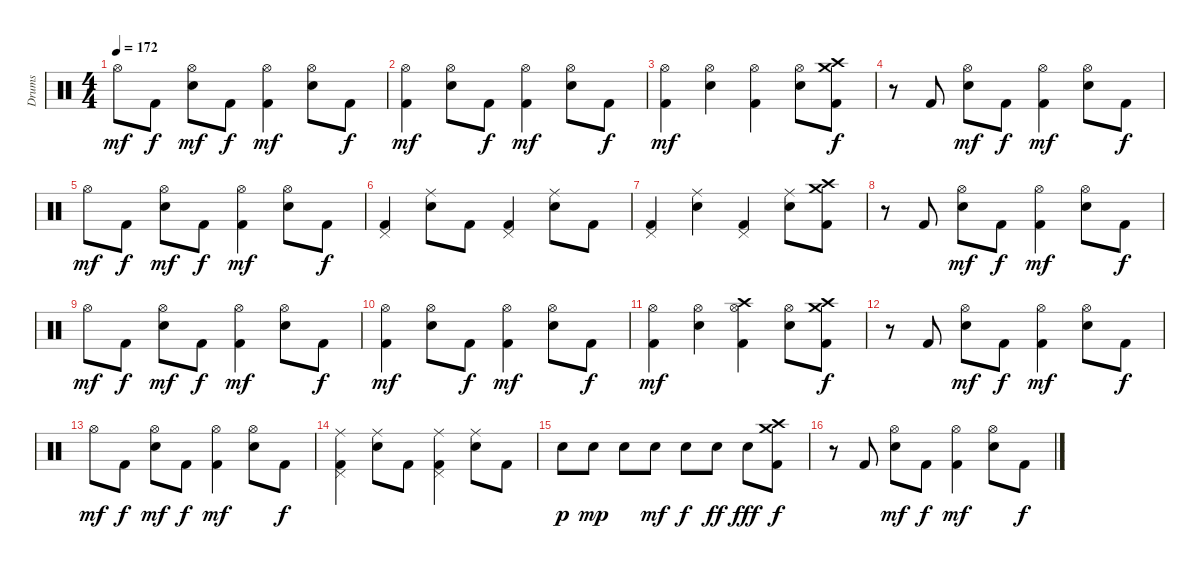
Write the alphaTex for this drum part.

\track ("Drums" "Drums") {instrument percussion}
\staff {score}
\articulation defaults
\ts (4 4)
\tempo 172
\clef neutral
\ks c "Hi-Hat (open)".8{dy mf} "Kick (hit) 2".8{dy f}
("Hi-Hat (open)" "Electric Snare (hit)").8{dy mf} "Kick (hit) 2".8{dy f} ("Hi-Hat (open)" "Kick (hit) 2").4{dy mf} ("Hi-Hat (open)" "Electric Snare (hit)").8 "Kick (hit) 2".8{dy f} |
("Hi-Hat (open)" "Kick (hit) 2").4{dy mf} ("Hi-Hat (open)" "Electric Snare (hit)").8 "Kick (hit) 2".8{dy f} ("Hi-Hat (open)" "Kick (hit) 2").4{dy mf} ("Hi-Hat (open)" "Electric Snare (hit)").8 "Kick (hit) 2".8{dy f} |
("Hi-Hat (open)" "Kick (hit) 2").4{dy mf} ("Hi-Hat (open)" "Electric Snare (hit)").4 ("Hi-Hat (open)" "Kick (hit) 2").4 ("Hi-Hat (open)" "Electric Snare (hit)").8 ("Crash medium (hit)" "Crash high (hit)" "Kick (hit) 2").8{dy f} |
r.8 "Kick (hit) 2".8 ("Hi-Hat (open)" "Electric Snare (hit)").8{dy mf} "Kick (hit) 2".8{dy f} ("Hi-Hat (open)" "Kick (hit) 2").4{dy mf} ("Hi-Hat (open)" "Electric Snare (hit)").8 "Kick (hit) 2".8{dy f} |
"Hi-Hat (open)".8{dy mf} "Kick (hit) 2".8{dy f} ("Hi-Hat (open)" "Electric Snare (hit)").8{dy mf} "Kick (hit) 2".8{dy f} ("Hi-Hat (open)" "Kick (hit) 2").4{dy mf} ("Hi-Hat (open)" "Electric Snare (hit)").8 "Kick (hit) 2".8{dy f} |
("Pedal Hi-Hat (hit)" "Kick (hit) 2").4 ("Ride (middle)" "Electric Snare (hit)").8 "Kick (hit) 2".8 ("Pedal Hi-Hat (hit)" "Kick (hit) 2").4 ("Ride (middle)" "Electric Snare (hit)").8 "Kick (hit) 2".8 |
("Pedal Hi-Hat (hit)" "Kick (hit) 2").4 ("Ride (middle)" "Electric Snare (hit)").4 ("Pedal Hi-Hat (hit)" "Kick (hit) 2").4 ("Ride (middle)" "Electric Snare (hit)").8 ("Crash medium (hit)" "Crash high (hit)" "Kick (hit) 2").8 |
\section ("" "")
r.8 "Kick (hit) 2".8 ("Hi-Hat (open)" "Electric Snare (hit)").8{dy mf} "Kick (hit) 2".8{dy f} ("Hi-Hat (open)" "Kick (hit) 2").4{dy mf} ("Hi-Hat (open)" "Electric Snare (hit)").8 "Kick (hit) 2".8{dy f} |
"Hi-Hat (open)".8{dy mf} "Kick (hit) 2".8{dy f} ("Hi-Hat (open)" "Electric Snare (hit)").8{dy mf} "Kick (hit) 2".8{dy f} ("Hi-Hat (open)" "Kick (hit) 2").4{dy mf} ("Hi-Hat (open)" "Electric Snare (hit)").8 "Kick (hit) 2".8{dy f} |
("Hi-Hat (open)" "Kick (hit) 2").4{dy mf} ("Hi-Hat (open)" "Electric Snare (hit)").8 "Kick (hit) 2".8{dy f} ("Hi-Hat (open)" "Kick (hit) 2").4{dy mf} ("Hi-Hat (open)" "Electric Snare (hit)").8 "Kick (hit) 2".8{dy f} |
("Hi-Hat (open)" "Kick (hit) 2").4{dy mf} ("Hi-Hat (open)" "Electric Snare (hit)").4 ("Hi-Hat (open)" "Crash high (hit)" "Kick (hit) 2").4 ("Hi-Hat (open)" "Electric Snare (hit)").8 ("Crash medium (hit)" "Crash high (hit)" "Kick (hit) 2").8{dy f} |
r.8 "Kick (hit) 2".8 ("Hi-Hat (open)" "Electric Snare (hit)").8{dy mf} "Kick (hit) 2".8{dy f} ("Hi-Hat (open)" "Kick (hit) 2").4{dy mf} ("Hi-Hat (open)" "Electric Snare (hit)").8 "Kick (hit) 2".8{dy f} |
"Hi-Hat (open)".8{dy mf} "Kick (hit) 2".8{dy f} ("Hi-Hat (open)" "Electric Snare (hit)").8{dy mf} "Kick (hit) 2".8{dy f} ("Hi-Hat (open)" "Kick (hit) 2").4{dy mf} ("Hi-Hat (open)" "Electric Snare (hit)").8 "Kick (hit) 2".8{dy f} |
("Pedal Hi-Hat (hit)" "Ride (middle)" "Kick (hit) 2").4 ("Ride (middle)" "Electric Snare (hit)").8 "Kick (hit) 2".8 ("Pedal Hi-Hat (hit)" "Ride (middle)" "Kick (hit) 2").4 ("Ride (middle)" "Electric Snare (hit)").8 "Kick (hit) 2".8 |
"Electric Snare (hit)".8{dy p} "Electric Snare (hit)".8{dy mp} "Electric Snare (hit)".8 "Electric Snare (hit)".8{dy mf} "Electric Snare (hit)".8{dy f} "Electric Snare (hit)".8{dy ff} "Electric Snare (hit)".8{dy fff} ("Crash medium (hit)" "Crash high (hit)" "Kick (hit) 2").8{dy f} |
\section ("" "")
r.8 "Kick (hit) 2".8 ("Hi-Hat (open)" "Electric Snare (hit)").8{dy mf} "Kick (hit) 2".8{dy f} ("Hi-Hat (open)" "Kick (hit) 2").4{dy mf} ("Hi-Hat (open)" "Electric Snare (hit)").8 "Kick (hit) 2".8{dy f}
